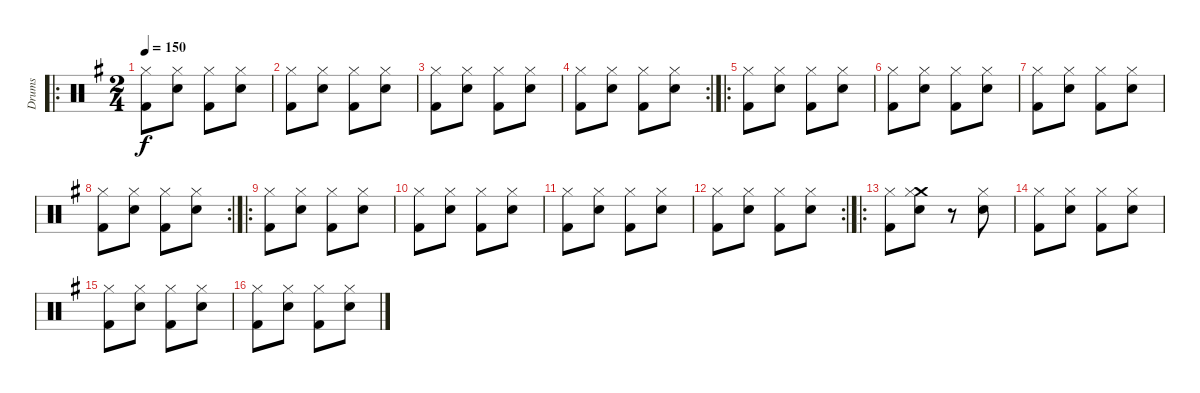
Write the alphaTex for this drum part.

\track ("Drums" "Drums") {instrument percussion}
\staff {score}
\articulation defaults
\ro
\ts (2 4)
\tempo 150
\clef neutral
\ks g
("Hi-Hat (closed)" "Kick (hit) 2").8{dy f} ("Hi-Hat (closed)" "Electric Snare (hit)").8 ("Hi-Hat (closed)" "Kick (hit) 2").8 ("Hi-Hat (closed)" "Electric Snare (hit)").8 |
("Hi-Hat (closed)" "Kick (hit) 2").8 ("Hi-Hat (closed)" "Electric Snare (hit)").8 ("Hi-Hat (closed)" "Kick (hit) 2").8 ("Hi-Hat (closed)" "Electric Snare (hit)").8 |
("Hi-Hat (closed)" "Kick (hit) 2").8 ("Hi-Hat (closed)" "Electric Snare (hit)").8 ("Hi-Hat (closed)" "Kick (hit) 2").8 ("Hi-Hat (closed)" "Electric Snare (hit)").8 |
\rc 2
("Hi-Hat (closed)" "Kick (hit) 2").8 ("Hi-Hat (closed)" "Electric Snare (hit)").8 ("Hi-Hat (closed)" "Kick (hit) 2").8 ("Hi-Hat (closed)" "Electric Snare (hit)").8 |
\ro
("Hi-Hat (closed)" "Kick (hit) 2").8 ("Hi-Hat (closed)" "Electric Snare (hit)").8 ("Hi-Hat (closed)" "Kick (hit) 2").8 ("Hi-Hat (closed)" "Electric Snare (hit)").8 |
("Hi-Hat (closed)" "Kick (hit) 2").8 ("Hi-Hat (closed)" "Electric Snare (hit)").8 ("Hi-Hat (closed)" "Kick (hit) 2").8 ("Hi-Hat (closed)" "Electric Snare (hit)").8 |
("Hi-Hat (closed)" "Kick (hit) 2").8 ("Hi-Hat (closed)" "Electric Snare (hit)").8 ("Hi-Hat (closed)" "Kick (hit) 2").8 ("Hi-Hat (closed)" "Electric Snare (hit)").8 |
\rc 2
("Hi-Hat (closed)" "Kick (hit) 2").8 ("Hi-Hat (closed)" "Electric Snare (hit)").8 ("Hi-Hat (closed)" "Kick (hit) 2").8 ("Hi-Hat (closed)" "Electric Snare (hit)").8 |
\ro
("Hi-Hat (closed)" "Kick (hit) 2").8 ("Hi-Hat (closed)" "Electric Snare (hit)").8 ("Hi-Hat (closed)" "Kick (hit) 2").8 ("Hi-Hat (closed)" "Electric Snare (hit)").8 |
("Hi-Hat (closed)" "Kick (hit) 2").8 ("Hi-Hat (closed)" "Electric Snare (hit)").8 ("Hi-Hat (closed)" "Kick (hit) 2").8 ("Hi-Hat (closed)" "Electric Snare (hit)").8 |
("Hi-Hat (closed)" "Kick (hit) 2").8 ("Hi-Hat (closed)" "Electric Snare (hit)").8 ("Hi-Hat (closed)" "Kick (hit) 2").8 ("Hi-Hat (closed)" "Electric Snare (hit)").8 |
\rc 2
("Hi-Hat (closed)" "Kick (hit) 2").8 ("Hi-Hat (closed)" "Electric Snare (hit)").8 ("Hi-Hat (closed)" "Kick (hit) 2").8 ("Hi-Hat (closed)" "Electric Snare (hit)").8 |
\ro
("Hi-Hat (closed)" "Kick (hit) 2").8 ("Crash medium (hit)" "Hi-Hat (closed)" "Electric Snare (hit)").8 r.8 ("Hi-Hat (closed)" "Electric Snare (hit)").8 |
("Hi-Hat (closed)" "Kick (hit) 2").8 ("Hi-Hat (closed)" "Electric Snare (hit)").8 ("Hi-Hat (closed)" "Kick (hit) 2").8 ("Hi-Hat (closed)" "Electric Snare (hit)").8 |
("Hi-Hat (closed)" "Kick (hit) 2").8 ("Hi-Hat (closed)" "Electric Snare (hit)").8 ("Hi-Hat (closed)" "Kick (hit) 2").8 ("Hi-Hat (closed)" "Electric Snare (hit)").8 |
("Hi-Hat (closed)" "Kick (hit) 2").8 ("Hi-Hat (closed)" "Electric Snare (hit)").8 ("Hi-Hat (closed)" "Kick (hit) 2").8 ("Hi-Hat (closed)" "Electric Snare (hit)").8
